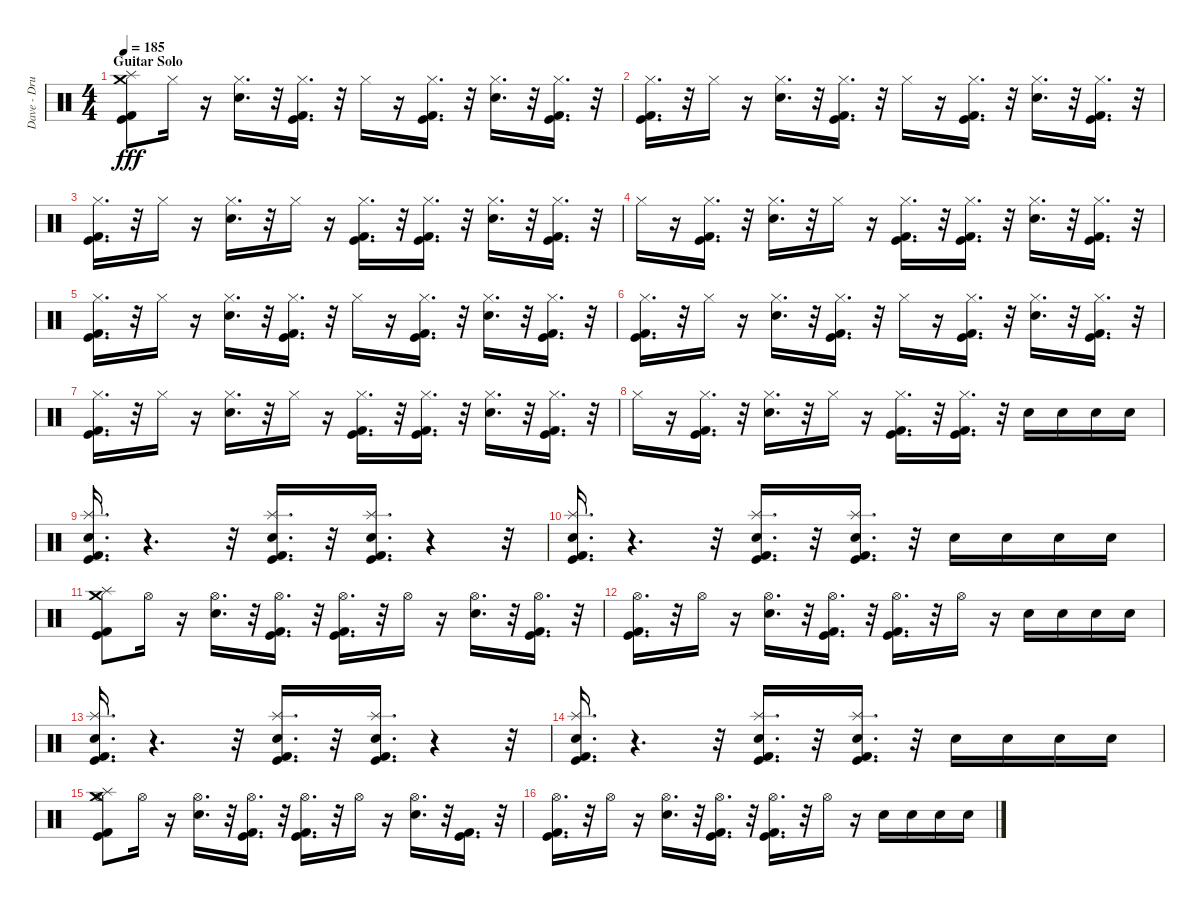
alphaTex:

\track ("Dave - Drums" "Dave - Dru") {instrument percussion}
\staff {score}
\articulation defaults
\ts (4 4)
\section ("" "Guitar Solo")
\tempo 185
\clef neutral
\ks c
("Kick (hit)" "Kick (hit) 2" "Splash (hit)" "Crash medium (hit)").8{dy fff} "Hi-Hat (closed)".16 r.16 ("Hi-Hat (closed)" "Electric Snare (hit)").16{d} r.32 ("Hi-Hat (closed)" "Kick (hit)" "Kick (hit) 2").16{d} r.32 "Hi-Hat (closed)".16 r.16 ("Hi-Hat (closed)" "Kick (hit)" "Kick (hit) 2").16{d} r.32 ("Hi-Hat (closed)" "Electric Snare (hit)").16{d} r.32 ("Hi-Hat (closed)" "Kick (hit)" "Kick (hit) 2").16{d} r.32 |
("Kick (hit)" "Kick (hit) 2" "Hi-Hat (closed)").16{d} r.32 "Hi-Hat (closed)".16 r.16 ("Hi-Hat (closed)" "Electric Snare (hit)").16{d} r.32 ("Hi-Hat (closed)" "Kick (hit)" "Kick (hit) 2").16{d} r.32 "Hi-Hat (closed)".16 r.16 ("Hi-Hat (closed)" "Kick (hit)" "Kick (hit) 2").16{d} r.32 ("Hi-Hat (closed)" "Electric Snare (hit)").16{d} r.32 ("Hi-Hat (closed)" "Kick (hit)" "Kick (hit) 2").16{d} r.32 |
("Kick (hit)" "Kick (hit) 2" "Hi-Hat (closed)").16{d} r.32 "Hi-Hat (closed)".16 r.16 ("Hi-Hat (closed)" "Electric Snare (hit)").16{d} r.32 "Hi-Hat (closed)".16 r.16 ("Kick (hit)" "Kick (hit) 2" "Hi-Hat (closed)").16{d} r.32 ("Hi-Hat (closed)" "Kick (hit)" "Kick (hit) 2").16{d} r.32 ("Hi-Hat (closed)" "Electric Snare (hit)").16{d} r.32 ("Hi-Hat (closed)" "Kick (hit)" "Kick (hit) 2").16{d} r.32 |
"Hi-Hat (closed)".16 r.16 ("Hi-Hat (closed)" "Kick (hit)" "Kick (hit) 2").16{d} r.32 ("Hi-Hat (closed)" "Electric Snare (hit)").16{d} r.32 "Hi-Hat (closed)".16 r.16 ("Hi-Hat (closed)" "Kick (hit)" "Kick (hit) 2").16{d} r.32 ("Hi-Hat (closed)" "Kick (hit)" "Kick (hit) 2").16{d} r.32 ("Hi-Hat (closed)" "Electric Snare (hit)").16{d} r.32 ("Hi-Hat (closed)" "Kick (hit)" "Kick (hit) 2").16{d} r.32 |
("Kick (hit)" "Kick (hit) 2" "Hi-Hat (closed)").16{d} r.32 "Hi-Hat (closed)".16 r.16 ("Hi-Hat (closed)" "Electric Snare (hit)").16{d} r.32 ("Hi-Hat (closed)" "Kick (hit)" "Kick (hit) 2").16{d} r.32 "Hi-Hat (closed)".16 r.16 ("Hi-Hat (closed)" "Kick (hit)" "Kick (hit) 2").16{d} r.32 ("Hi-Hat (closed)" "Electric Snare (hit)").16{d} r.32 ("Hi-Hat (closed)" "Kick (hit)" "Kick (hit) 2").16{d} r.32 |
("Kick (hit)" "Kick (hit) 2" "Hi-Hat (closed)").16{d} r.32 "Hi-Hat (closed)".16 r.16 ("Hi-Hat (closed)" "Electric Snare (hit)").16{d} r.32 ("Hi-Hat (closed)" "Kick (hit)" "Kick (hit) 2").16{d} r.32 "Hi-Hat (closed)".16 r.16 ("Hi-Hat (closed)" "Kick (hit)" "Kick (hit) 2").16{d} r.32 ("Hi-Hat (closed)" "Electric Snare (hit)").16{d} r.32 ("Hi-Hat (closed)" "Kick (hit)" "Kick (hit) 2").16{d} r.32 |
("Kick (hit)" "Kick (hit) 2" "Hi-Hat (closed)").16{d} r.32 "Hi-Hat (closed)".16 r.16 ("Hi-Hat (closed)" "Electric Snare (hit)").16{d} r.32 "Hi-Hat (closed)".16 r.16 ("Kick (hit)" "Kick (hit) 2" "Hi-Hat (closed)").16{d} r.32 ("Hi-Hat (closed)" "Kick (hit)" "Kick (hit) 2").16{d} r.32 ("Hi-Hat (closed)" "Electric Snare (hit)").16{d} r.32 ("Hi-Hat (closed)" "Kick (hit)" "Kick (hit) 2").16{d} r.32 |
"Hi-Hat (closed)".16 r.16 ("Hi-Hat (closed)" "Kick (hit)" "Kick (hit) 2").16{d} r.32 ("Hi-Hat (closed)" "Electric Snare (hit)").16{d} r.32 "Hi-Hat (closed)".16 r.16 ("Hi-Hat (closed)" "Kick (hit)" "Kick (hit) 2").16{d} r.32 ("Hi-Hat (closed)" "Kick (hit)" "Kick (hit) 2").16{d} r.32 "Electric Snare (hit)".16 "Electric Snare (hit)".16 "Electric Snare (hit)".16 "Electric Snare (hit)".16 |
("Kick (hit)" "Kick (hit) 2" "Electric Snare (hit)" "Splash (hit)").16{d} r.4{d} r.32 ("Kick (hit)" "Kick (hit) 2" "Electric Snare (hit)" "Splash (hit)").16{d} r.32 ("Kick (hit)" "Kick (hit) 2" "Electric Snare (hit)" "Splash (hit)").16{d} r.4 r.32 |
("Kick (hit) 2" "Electric Snare (hit)" "Kick (hit)" "Splash (hit)").16{d} r.4{d} r.32 ("Kick (hit) 2" "Electric Snare (hit)" "Kick (hit)" "Splash (hit)").16{d} r.32 ("Kick (hit) 2" "Electric Snare (hit)" "Kick (hit)" "Splash (hit)").16{d} r.32 "Electric Snare (hit)".16 "Electric Snare (hit)".16 "Electric Snare (hit)".16 "Electric Snare (hit)".16 |
("Kick (hit) 2" "Kick (hit)" "Splash (hit)" "Crash medium (hit)").8 "Hi-Hat (open)".16 r.16 ("Electric Snare (hit)" "Hi-Hat (open)").16{d} r.32 ("Kick (hit) 2" "Kick (hit)" "Hi-Hat (open)").16{d} r.32 ("Kick (hit)" "Kick (hit) 2" "Hi-Hat (open)").16{d} r.32 "Hi-Hat (open)".16 r.16 ("Electric Snare (hit)" "Hi-Hat (open)").16{d} r.32 ("Kick (hit)" "Kick (hit) 2" "Hi-Hat (open)").16{d} r.32 |
("Kick (hit)" "Kick (hit) 2" "Hi-Hat (open)").16{d} r.32 "Hi-Hat (open)".16 r.16 ("Electric Snare (hit)" "Hi-Hat (open)").16{d} r.32 ("Hi-Hat (open)" "Kick (hit)" "Kick (hit) 2").16{d} r.32 ("Kick (hit)" "Kick (hit) 2" "Hi-Hat (open)").16{d} r.32 "Hi-Hat (open)".16 r.16 "Electric Snare (hit)".16 "Electric Snare (hit)".16 "Electric Snare (hit)".16 "Electric Snare (hit)".16 |
("Kick (hit)" "Kick (hit) 2" "Electric Snare (hit)" "Splash (hit)").16{d} r.4{d} r.32 ("Kick (hit)" "Kick (hit) 2" "Electric Snare (hit)" "Splash (hit)").16{d} r.32 ("Kick (hit)" "Kick (hit) 2" "Electric Snare (hit)" "Splash (hit)").16{d} r.4 r.32 |
("Kick (hit) 2" "Electric Snare (hit)" "Kick (hit)" "Splash (hit)").16{d} r.4{d} r.32 ("Kick (hit) 2" "Electric Snare (hit)" "Kick (hit)" "Splash (hit)").16{d} r.32 ("Kick (hit) 2" "Electric Snare (hit)" "Kick (hit)" "Splash (hit)").16{d} r.32 "Electric Snare (hit)".16 "Electric Snare (hit)".16 "Electric Snare (hit)".16 "Electric Snare (hit)".16 |
("Kick (hit) 2" "Kick (hit)" "Splash (hit)" "Crash medium (hit)" "Hi-Hat (open)").8 "Hi-Hat (open)".16 r.16 ("Electric Snare (hit)" "Hi-Hat (open)").16{d} r.32 ("Kick (hit) 2" "Kick (hit)" "Hi-Hat (open)").16{d} r.32 ("Kick (hit)" "Kick (hit) 2" "Hi-Hat (open)").16{d} r.32 "Hi-Hat (open)".16 r.16 ("Electric Snare (hit)" "Hi-Hat (open)").16{d} r.32 ("Kick (hit)" "Kick (hit) 2").16{d} r.32 |
("Kick (hit)" "Kick (hit) 2" "Hi-Hat (open)").16{d} r.32 "Hi-Hat (open)".16 r.16 ("Electric Snare (hit)" "Hi-Hat (open)").16{d} r.32 ("Hi-Hat (open)" "Kick (hit)" "Kick (hit) 2").16{d} r.32 ("Kick (hit)" "Kick (hit) 2" "Hi-Hat (open)").16{d} r.32 "Hi-Hat (open)".16 r.16 "Electric Snare (hit)".16 "Electric Snare (hit)".16 "Electric Snare (hit)".16 "Electric Snare (hit)".16
